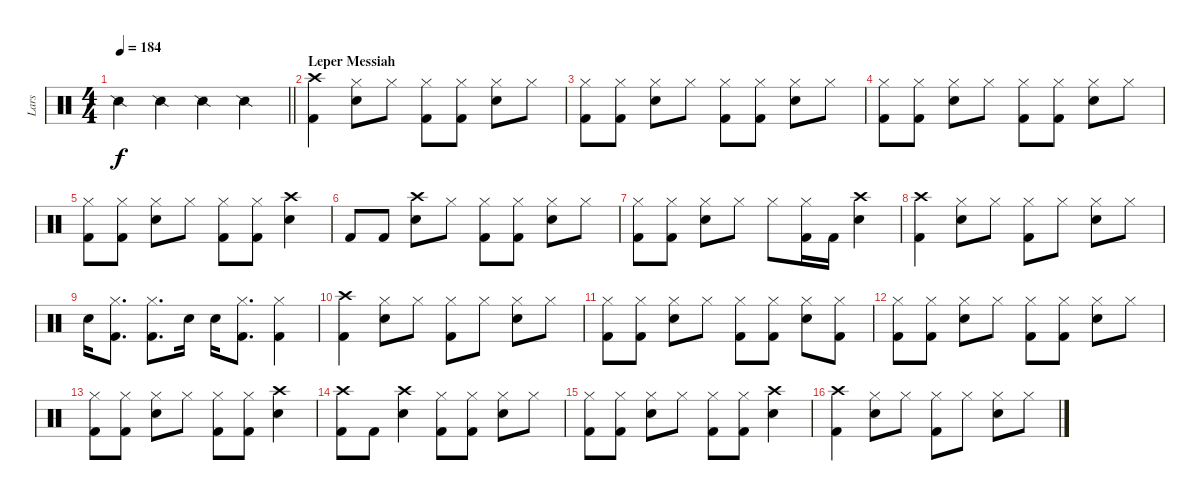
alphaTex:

\track ("Lars" "Lars") {instrument percussion}
\staff {score}
\articulation defaults
\ts (4 4)
\tempo 184
\clef neutral
\barLineRight lightlight
\ks c "Snare (side stick) 2".4{dy f} "Snare (side stick) 2".4 "Snare (side stick) 2".4 "Snare (side stick) 2".4
|
\section ("" "Leper Messiah")
("Crash high (hit)" "Kick (hit) 2").4 ("Hi-Hat (closed)" "Snare (hit) 2").8 "Hi-Hat (closed)".8 ("Hi-Hat (closed)" "Kick (hit) 2").8 ("Hi-Hat (closed)" "Kick (hit) 2").8 ("Hi-Hat (closed)" "Snare (hit) 2").8 "Hi-Hat (closed)".8 |
("Hi-Hat (closed)" "Kick (hit) 2").8 ("Hi-Hat (closed)" "Kick (hit) 2").8 ("Hi-Hat (closed)" "Snare (hit) 2").8 "Hi-Hat (closed)".8 ("Hi-Hat (closed)" "Kick (hit) 2").8 ("Hi-Hat (closed)" "Kick (hit) 2").8 ("Hi-Hat (closed)" "Snare (hit) 2").8 "Hi-Hat (closed)".8 |
("Hi-Hat (closed)" "Kick (hit) 2").8 ("Hi-Hat (closed)" "Kick (hit) 2").8 ("Hi-Hat (closed)" "Snare (hit) 2").8 "Hi-Hat (closed)".8 ("Hi-Hat (closed)" "Kick (hit) 2").8 ("Hi-Hat (closed)" "Kick (hit) 2").8 ("Hi-Hat (closed)" "Snare (hit) 2").8 "Hi-Hat (closed)".8 |
("Hi-Hat (closed)" "Kick (hit) 2").8 ("Hi-Hat (closed)" "Kick (hit) 2").8 ("Hi-Hat (closed)" "Snare (hit) 2").8 "Hi-Hat (closed)".8 ("Hi-Hat (closed)" "Kick (hit) 2").8 ("Hi-Hat (closed)" "Kick (hit) 2").8 ("Crash high (hit)" "Snare (hit) 2").4 |
"Kick (hit) 2".8 "Kick (hit) 2".8 ("Crash high (hit)" "Snare (hit) 2").8 "Hi-Hat (closed)".8 ("Hi-Hat (closed)" "Kick (hit) 2").8 ("Hi-Hat (closed)" "Kick (hit) 2").8 ("Hi-Hat (closed)" "Snare (hit) 2").8 "Hi-Hat (closed)".8 |
("Hi-Hat (closed)" "Kick (hit) 2").8 ("Hi-Hat (closed)" "Kick (hit) 2").8 ("Hi-Hat (closed)" "Snare (hit) 2").8 "Hi-Hat (closed)".8 "Hi-Hat (closed)".8 ("Hi-Hat (closed)" "Kick (hit) 2").16 "Kick (hit) 2".16 ("Crash high (hit)" "Snare (hit) 2").4 |
("Crash high (hit)" "Kick (hit) 2").4 ("Hi-Hat (closed)" "Snare (hit) 2").8 "Hi-Hat (closed)".8 ("Hi-Hat (closed)" "Kick (hit) 2").8 "Hi-Hat (closed)".8 ("Hi-Hat (closed)" "Snare (hit) 2").8 "Hi-Hat (closed)".8 |
"Snare (hit) 2".16 ("Hi-Hat (closed)" "Kick (hit) 2").8{d} ("Hi-Hat (closed)" "Kick (hit) 2").8{d} "Snare (hit) 2".16 "Snare (hit) 2".16 ("Hi-Hat (closed)" "Kick (hit) 2").8{d} ("Hi-Hat (closed)" "Kick (hit) 2").4 |
("Crash high (hit)" "Kick (hit) 2").4 ("Hi-Hat (closed)" "Snare (hit) 2").8 "Hi-Hat (closed)".8 ("Hi-Hat (closed)" "Kick (hit) 2").8 "Hi-Hat (closed)".8 ("Hi-Hat (closed)" "Snare (hit) 2").8 "Hi-Hat (closed)".8 |
("Hi-Hat (closed)" "Kick (hit) 2").8 ("Hi-Hat (closed)" "Kick (hit) 2").8 ("Hi-Hat (closed)" "Snare (hit) 2").8 "Hi-Hat (closed)".8 ("Hi-Hat (closed)" "Kick (hit) 2").8 ("Hi-Hat (closed)" "Kick (hit) 2").8 ("Hi-Hat (closed)" "Snare (hit) 2").8 ("Hi-Hat (closed)" "Kick (hit) 2").8 |
("Hi-Hat (closed)" "Kick (hit) 2").8 ("Hi-Hat (closed)" "Kick (hit) 2").8 ("Hi-Hat (closed)" "Snare (hit) 2").8 "Hi-Hat (closed)".8 ("Hi-Hat (closed)" "Kick (hit) 2").8 ("Hi-Hat (closed)" "Kick (hit) 2").8 ("Hi-Hat (closed)" "Snare (hit) 2").8 "Hi-Hat (closed)".8 |
("Hi-Hat (closed)" "Kick (hit) 2").8 ("Hi-Hat (closed)" "Kick (hit) 2").8 ("Hi-Hat (closed)" "Snare (hit) 2").8 "Hi-Hat (closed)".8 ("Hi-Hat (closed)" "Kick (hit) 2").8 ("Hi-Hat (closed)" "Kick (hit) 2").8 ("Crash high (hit)" "Snare (hit) 2").4 |
("Crash high (hit)" "Kick (hit) 2").8 "Kick (hit) 2".8 ("Crash high (hit)" "Snare (hit) 2").4 ("Hi-Hat (closed)" "Kick (hit) 2").8 ("Hi-Hat (closed)" "Kick (hit) 2").8 ("Hi-Hat (closed)" "Snare (hit) 2").8 "Hi-Hat (closed)".8 |
("Hi-Hat (closed)" "Kick (hit) 2").8 ("Hi-Hat (closed)" "Kick (hit) 2").8 ("Hi-Hat (closed)" "Snare (hit) 2").8 "Hi-Hat (closed)".8 ("Hi-Hat (closed)" "Kick (hit) 2").8 ("Hi-Hat (closed)" "Kick (hit) 2").8 ("Crash high (hit)" "Snare (hit) 2").4 |
("Crash high (hit)" "Kick (hit) 2").4 ("Hi-Hat (closed)" "Snare (hit) 2").8 "Hi-Hat (closed)".8 ("Hi-Hat (closed)" "Kick (hit) 2").8 "Hi-Hat (closed)".8 ("Hi-Hat (closed)" "Snare (hit) 2").8 "Hi-Hat (closed)".8
